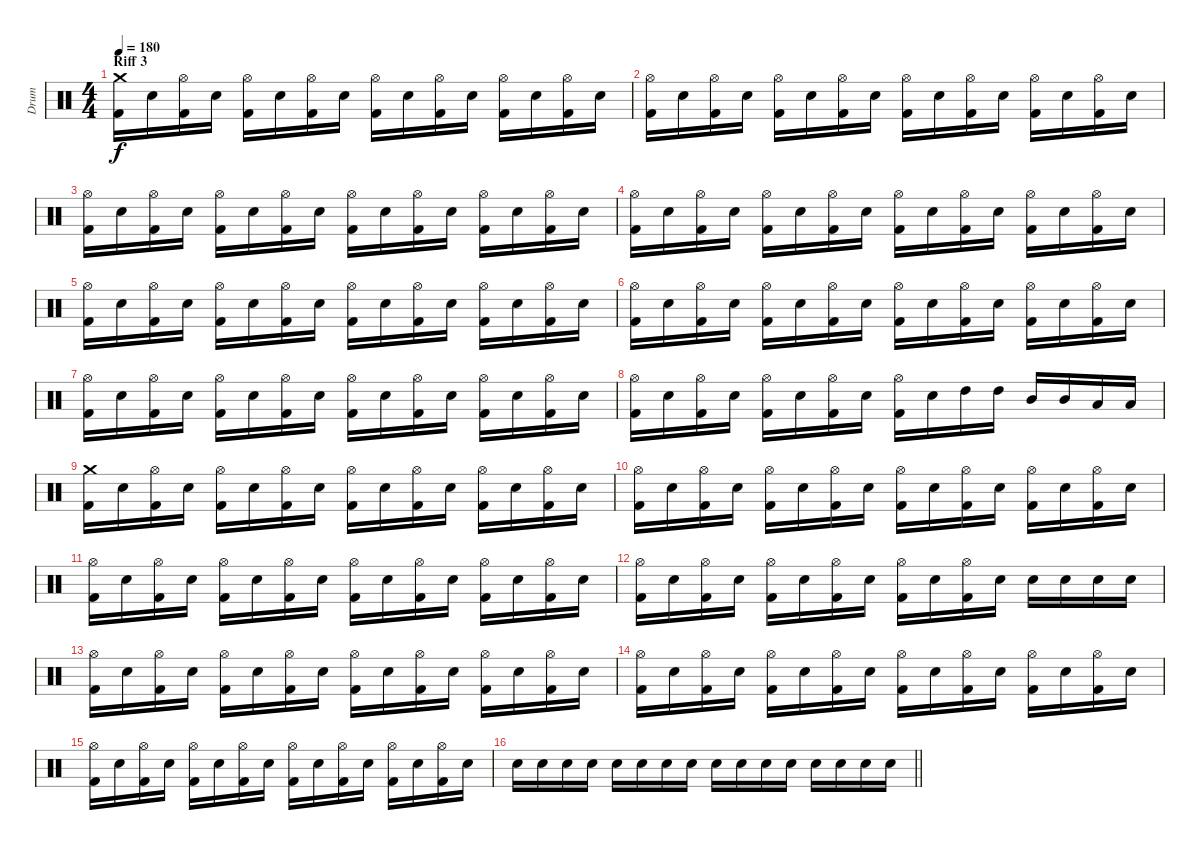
\track ("Drum" "Drum") {instrument percussion}
\staff {score}
\articulation defaults
\ts (4 4)
\section ("" "Riff 3")
\tempo 180
\clef neutral
\ks c
("Crash medium (hit)" "Kick (hit) 2").16{dy f} "Electric Snare (hit)".16 ("Hi-Hat (open)" "Kick (hit) 2").16 "Electric Snare (hit)".16 ("Hi-Hat (open)" "Kick (hit) 2").16 "Electric Snare (hit)".16 ("Hi-Hat (open)" "Kick (hit) 2").16 "Electric Snare (hit)".16 ("Hi-Hat (open)" "Kick (hit) 2").16 "Electric Snare (hit)".16 ("Hi-Hat (open)" "Kick (hit) 2").16 "Electric Snare (hit)".16 ("Hi-Hat (open)" "Kick (hit) 2").16 "Electric Snare (hit)".16 ("Hi-Hat (open)" "Kick (hit) 2").16 "Electric Snare (hit)".16 |
("Hi-Hat (open)" "Kick (hit) 2").16 "Electric Snare (hit)".16 ("Hi-Hat (open)" "Kick (hit) 2").16 "Electric Snare (hit)".16 ("Hi-Hat (open)" "Kick (hit) 2").16 "Electric Snare (hit)".16 ("Hi-Hat (open)" "Kick (hit) 2").16 "Electric Snare (hit)".16 ("Hi-Hat (open)" "Kick (hit) 2").16 "Electric Snare (hit)".16 ("Hi-Hat (open)" "Kick (hit) 2").16 "Electric Snare (hit)".16 ("Hi-Hat (open)" "Kick (hit) 2").16 "Electric Snare (hit)".16 ("Hi-Hat (open)" "Kick (hit) 2").16 "Electric Snare (hit)".16 |
("Hi-Hat (open)" "Kick (hit) 2").16 "Electric Snare (hit)".16 ("Hi-Hat (open)" "Kick (hit) 2").16 "Electric Snare (hit)".16 ("Hi-Hat (open)" "Kick (hit) 2").16 "Electric Snare (hit)".16 ("Hi-Hat (open)" "Kick (hit) 2").16 "Electric Snare (hit)".16 ("Hi-Hat (open)" "Kick (hit) 2").16 "Electric Snare (hit)".16 ("Hi-Hat (open)" "Kick (hit) 2").16 "Electric Snare (hit)".16 ("Hi-Hat (open)" "Kick (hit) 2").16 "Electric Snare (hit)".16 ("Hi-Hat (open)" "Kick (hit) 2").16 "Electric Snare (hit)".16 |
("Hi-Hat (open)" "Kick (hit) 2").16 "Electric Snare (hit)".16 ("Hi-Hat (open)" "Kick (hit) 2").16 "Electric Snare (hit)".16 ("Hi-Hat (open)" "Kick (hit) 2").16 "Electric Snare (hit)".16 ("Hi-Hat (open)" "Kick (hit) 2").16 "Electric Snare (hit)".16 ("Hi-Hat (open)" "Kick (hit) 2").16 "Electric Snare (hit)".16 ("Hi-Hat (open)" "Kick (hit) 2").16 "Electric Snare (hit)".16 ("Hi-Hat (open)" "Kick (hit) 2").16 "Electric Snare (hit)".16 ("Hi-Hat (open)" "Kick (hit) 2").16 "Electric Snare (hit)".16 |
("Hi-Hat (open)" "Kick (hit) 2").16 "Electric Snare (hit)".16 ("Hi-Hat (open)" "Kick (hit) 2").16 "Electric Snare (hit)".16 ("Hi-Hat (open)" "Kick (hit) 2").16 "Electric Snare (hit)".16 ("Hi-Hat (open)" "Kick (hit) 2").16 "Electric Snare (hit)".16 ("Hi-Hat (open)" "Kick (hit) 2").16 "Electric Snare (hit)".16 ("Hi-Hat (open)" "Kick (hit) 2").16 "Electric Snare (hit)".16 ("Hi-Hat (open)" "Kick (hit) 2").16 "Electric Snare (hit)".16 ("Hi-Hat (open)" "Kick (hit) 2").16 "Electric Snare (hit)".16 |
("Hi-Hat (open)" "Kick (hit) 2").16 "Electric Snare (hit)".16 ("Hi-Hat (open)" "Kick (hit) 2").16 "Electric Snare (hit)".16 ("Hi-Hat (open)" "Kick (hit) 2").16 "Electric Snare (hit)".16 ("Hi-Hat (open)" "Kick (hit) 2").16 "Electric Snare (hit)".16 ("Hi-Hat (open)" "Kick (hit) 2").16 "Electric Snare (hit)".16 ("Hi-Hat (open)" "Kick (hit) 2").16 "Electric Snare (hit)".16 ("Hi-Hat (open)" "Kick (hit) 2").16 "Electric Snare (hit)".16 ("Hi-Hat (open)" "Kick (hit) 2").16 "Electric Snare (hit)".16 |
("Hi-Hat (open)" "Kick (hit) 2").16 "Electric Snare (hit)".16 ("Hi-Hat (open)" "Kick (hit) 2").16 "Electric Snare (hit)".16 ("Hi-Hat (open)" "Kick (hit) 2").16 "Electric Snare (hit)".16 ("Hi-Hat (open)" "Kick (hit) 2").16 "Electric Snare (hit)".16 ("Hi-Hat (open)" "Kick (hit) 2").16 "Electric Snare (hit)".16 ("Hi-Hat (open)" "Kick (hit) 2").16 "Electric Snare (hit)".16 ("Hi-Hat (open)" "Kick (hit) 2").16 "Electric Snare (hit)".16 ("Hi-Hat (open)" "Kick (hit) 2").16 "Electric Snare (hit)".16 |
("Hi-Hat (open)" "Kick (hit) 2").16 "Electric Snare (hit)".16 ("Hi-Hat (open)" "Kick (hit) 2").16 "Electric Snare (hit)".16 ("Hi-Hat (open)" "Kick (hit) 2").16 "Electric Snare (hit)".16 ("Hi-Hat (open)" "Kick (hit) 2").16 "Electric Snare (hit)".16 ("Hi-Hat (open)" "Kick (hit) 2").16 "Electric Snare (hit)".16 "High Tom (hit)".16 "High Tom (hit)".16 "Mid Tom (hit)".16 "Mid Tom (hit)".16 "Low Tom (hit)".16 "Low Tom (hit)".16 |
("Crash medium (hit)" "Kick (hit) 2").16 "Electric Snare (hit)".16 ("Hi-Hat (open)" "Kick (hit) 2").16 "Electric Snare (hit)".16 ("Hi-Hat (open)" "Kick (hit) 2").16 "Electric Snare (hit)".16 ("Hi-Hat (open)" "Kick (hit) 2").16 "Electric Snare (hit)".16 ("Hi-Hat (open)" "Kick (hit) 2").16 "Electric Snare (hit)".16 ("Hi-Hat (open)" "Kick (hit) 2").16 "Electric Snare (hit)".16 ("Hi-Hat (open)" "Kick (hit) 2").16 "Electric Snare (hit)".16 ("Hi-Hat (open)" "Kick (hit) 2").16 "Electric Snare (hit)".16 |
("Hi-Hat (open)" "Kick (hit) 2").16 "Electric Snare (hit)".16 ("Hi-Hat (open)" "Kick (hit) 2").16 "Electric Snare (hit)".16 ("Hi-Hat (open)" "Kick (hit) 2").16 "Electric Snare (hit)".16 ("Hi-Hat (open)" "Kick (hit) 2").16 "Electric Snare (hit)".16 ("Hi-Hat (open)" "Kick (hit) 2").16 "Electric Snare (hit)".16 ("Hi-Hat (open)" "Kick (hit) 2").16 "Electric Snare (hit)".16 ("Hi-Hat (open)" "Kick (hit) 2").16 "Electric Snare (hit)".16 ("Hi-Hat (open)" "Kick (hit) 2").16 "Electric Snare (hit)".16 |
("Hi-Hat (open)" "Kick (hit) 2").16 "Electric Snare (hit)".16 ("Hi-Hat (open)" "Kick (hit) 2").16 "Electric Snare (hit)".16 ("Hi-Hat (open)" "Kick (hit) 2").16 "Electric Snare (hit)".16 ("Hi-Hat (open)" "Kick (hit) 2").16 "Electric Snare (hit)".16 ("Hi-Hat (open)" "Kick (hit) 2").16 "Electric Snare (hit)".16 ("Hi-Hat (open)" "Kick (hit) 2").16 "Electric Snare (hit)".16 ("Hi-Hat (open)" "Kick (hit) 2").16 "Electric Snare (hit)".16 ("Hi-Hat (open)" "Kick (hit) 2").16 "Electric Snare (hit)".16 |
("Hi-Hat (open)" "Kick (hit) 2").16 "Electric Snare (hit)".16 ("Hi-Hat (open)" "Kick (hit) 2").16 "Electric Snare (hit)".16 ("Hi-Hat (open)" "Kick (hit) 2").16 "Electric Snare (hit)".16 ("Hi-Hat (open)" "Kick (hit) 2").16 "Electric Snare (hit)".16 ("Hi-Hat (open)" "Kick (hit) 2").16 "Electric Snare (hit)".16 ("Hi-Hat (open)" "Kick (hit) 2").16 "Electric Snare (hit)".16 "Electric Snare (hit)".16 "Electric Snare (hit)".16 "Electric Snare (hit)".16 "Electric Snare (hit)".16 |
("Hi-Hat (open)" "Kick (hit) 2").16 "Electric Snare (hit)".16 ("Hi-Hat (open)" "Kick (hit) 2").16 "Electric Snare (hit)".16 ("Hi-Hat (open)" "Kick (hit) 2").16 "Electric Snare (hit)".16 ("Hi-Hat (open)" "Kick (hit) 2").16 "Electric Snare (hit)".16 ("Hi-Hat (open)" "Kick (hit) 2").16 "Electric Snare (hit)".16 ("Hi-Hat (open)" "Kick (hit) 2").16 "Electric Snare (hit)".16 ("Hi-Hat (open)" "Kick (hit) 2").16 "Electric Snare (hit)".16 ("Hi-Hat (open)" "Kick (hit) 2").16 "Electric Snare (hit)".16 |
("Hi-Hat (open)" "Kick (hit) 2").16 "Electric Snare (hit)".16 ("Hi-Hat (open)" "Kick (hit) 2").16 "Electric Snare (hit)".16 ("Hi-Hat (open)" "Kick (hit) 2").16 "Electric Snare (hit)".16 ("Hi-Hat (open)" "Kick (hit) 2").16 "Electric Snare (hit)".16 ("Hi-Hat (open)" "Kick (hit) 2").16 "Electric Snare (hit)".16 ("Hi-Hat (open)" "Kick (hit) 2").16 "Electric Snare (hit)".16 ("Hi-Hat (open)" "Kick (hit) 2").16 "Electric Snare (hit)".16 ("Hi-Hat (open)" "Kick (hit) 2").16 "Electric Snare (hit)".16 |
("Hi-Hat (open)" "Kick (hit) 2").16 "Electric Snare (hit)".16 ("Hi-Hat (open)" "Kick (hit) 2").16 "Electric Snare (hit)".16 ("Hi-Hat (open)" "Kick (hit) 2").16 "Electric Snare (hit)".16 ("Hi-Hat (open)" "Kick (hit) 2").16 "Electric Snare (hit)".16 ("Hi-Hat (open)" "Kick (hit) 2").16 "Electric Snare (hit)".16 ("Hi-Hat (open)" "Kick (hit) 2").16 "Electric Snare (hit)".16 ("Hi-Hat (open)" "Kick (hit) 2").16 "Electric Snare (hit)".16 ("Hi-Hat (open)" "Kick (hit) 2").16 "Electric Snare (hit)".16 |
\barLineRight lightlight "Electric Snare (hit)".16 "Electric Snare (hit)".16 "Electric Snare (hit)".16 "Electric Snare (hit)".16 "Electric Snare (hit)".16 "Electric Snare (hit)".16 "Electric Snare (hit)".16 "Electric Snare (hit)".16 "Electric Snare (hit)".16 "Electric Snare (hit)".16 "Electric Snare (hit)".16 "Electric Snare (hit)".16 "Electric Snare (hit)".16 "Electric Snare (hit)".16 "Electric Snare (hit)".16 "Electric Snare (hit)".16
